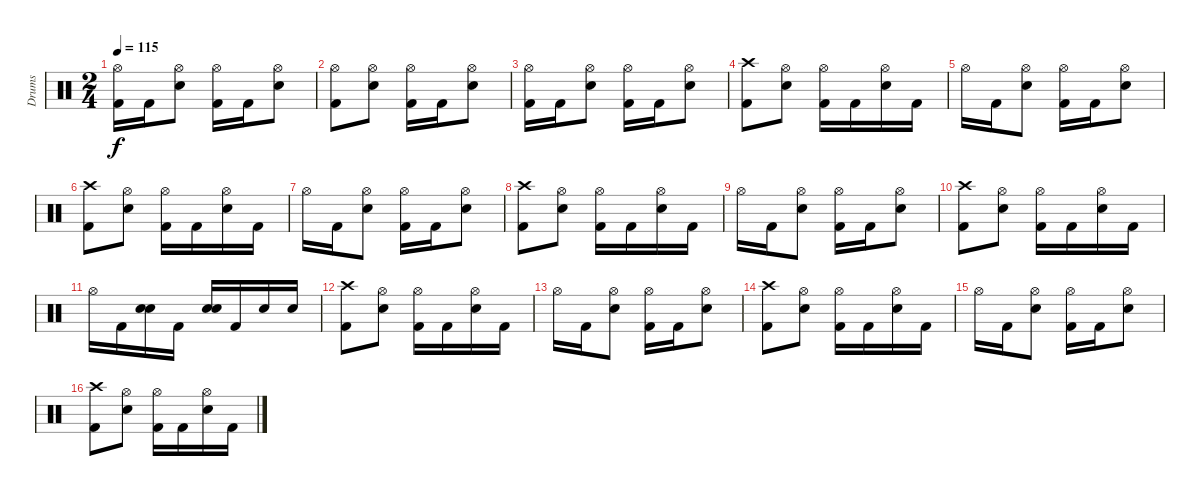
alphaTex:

\track ("Drums" "Drums") {instrument percussion}
\staff {score}
\articulation defaults
\ts (2 4)
\tempo 115
\clef neutral
\ks c
("Hi-Hat (open)" "Kick (hit) 2").16{dy f} "Kick (hit) 2".16 ("Hi-Hat (open)" "Electric Snare (hit)").8 ("Hi-Hat (open)" "Kick (hit) 2").16 "Kick (hit) 2".16 ("Hi-Hat (open)" "Electric Snare (hit)").8 |
("Hi-Hat (open)" "Kick (hit) 2").8 ("Hi-Hat (open)" "Electric Snare (hit)").8 ("Hi-Hat (open)" "Kick (hit) 2").16 "Kick (hit) 2".16 ("Hi-Hat (open)" "Electric Snare (hit)").8 |
("Hi-Hat (open)" "Kick (hit) 2").16 "Kick (hit) 2".16 ("Hi-Hat (open)" "Electric Snare (hit)").8 ("Hi-Hat (open)" "Kick (hit) 2").16 "Kick (hit) 2".16 ("Hi-Hat (open)" "Electric Snare (hit)").8 |
("Crash high (hit)" "Kick (hit) 2").8 ("Hi-Hat (open)" "Electric Snare (hit)").8 ("Hi-Hat (open)" "Kick (hit) 2").16 "Kick (hit) 2".16 ("Hi-Hat (open)" "Electric Snare (hit)").16 "Kick (hit) 2".16 |
"Hi-Hat (open)".16 "Kick (hit) 2".16 ("Hi-Hat (open)" "Electric Snare (hit)").8 ("Hi-Hat (open)" "Kick (hit) 2").16 "Kick (hit) 2".16 ("Hi-Hat (open)" "Electric Snare (hit)").8 |
("Crash high (hit)" "Kick (hit) 2").8 ("Hi-Hat (open)" "Electric Snare (hit)").8 ("Hi-Hat (open)" "Kick (hit) 2").16 "Kick (hit) 2".16 ("Hi-Hat (open)" "Electric Snare (hit)").16 "Kick (hit) 2".16 |
"Hi-Hat (open)".16 "Kick (hit) 2".16 ("Hi-Hat (open)" "Electric Snare (hit)").8 ("Hi-Hat (open)" "Kick (hit) 2").16 "Kick (hit) 2".16 ("Hi-Hat (open)" "Electric Snare (hit)").8 |
("Crash high (hit)" "Kick (hit) 2").8 ("Hi-Hat (open)" "Electric Snare (hit)").8 ("Hi-Hat (open)" "Kick (hit) 2").16 "Kick (hit) 2".16 ("Hi-Hat (open)" "Electric Snare (hit)").16 "Kick (hit) 2".16 |
"Hi-Hat (open)".16 "Kick (hit) 2".16 ("Hi-Hat (open)" "Electric Snare (hit)").8 ("Hi-Hat (open)" "Kick (hit) 2").16 "Kick (hit) 2".16 ("Hi-Hat (open)" "Electric Snare (hit)").8 |
("Crash high (hit)" "Kick (hit) 2").8 ("Hi-Hat (open)" "Electric Snare (hit)").8 ("Hi-Hat (open)" "Kick (hit) 2").16 "Kick (hit) 2".16 ("Hi-Hat (open)" "Electric Snare (hit)").16 "Kick (hit) 2".16 |
"Hi-Hat (open)".16 "Kick (hit) 2".16 ("Electric Snare (hit)" "Electric Snare (hit)").16 "Kick (hit) 2".16 ("Electric Snare (hit)" "Electric Snare (hit)").16 "Kick (hit) 2".16 "Electric Snare (hit)".16 "Electric Snare (hit)".16 |
("Crash high (hit)" "Kick (hit) 2").8 ("Hi-Hat (open)" "Electric Snare (hit)").8 ("Hi-Hat (open)" "Kick (hit) 2").16 "Kick (hit) 2".16 ("Hi-Hat (open)" "Electric Snare (hit)").16 "Kick (hit) 2".16 |
"Hi-Hat (open)".16 "Kick (hit) 2".16 ("Hi-Hat (open)" "Electric Snare (hit)").8 ("Hi-Hat (open)" "Kick (hit) 2").16 "Kick (hit) 2".16 ("Hi-Hat (open)" "Electric Snare (hit)").8 |
("Crash high (hit)" "Kick (hit) 2").8 ("Hi-Hat (open)" "Electric Snare (hit)").8 ("Hi-Hat (open)" "Kick (hit) 2").16 "Kick (hit) 2".16 ("Hi-Hat (open)" "Electric Snare (hit)").16 "Kick (hit) 2".16 |
"Hi-Hat (open)".16 "Kick (hit) 2".16 ("Hi-Hat (open)" "Electric Snare (hit)").8 ("Hi-Hat (open)" "Kick (hit) 2").16 "Kick (hit) 2".16 ("Hi-Hat (open)" "Electric Snare (hit)").8 |
("Crash high (hit)" "Kick (hit) 2").8 ("Hi-Hat (open)" "Electric Snare (hit)").8 ("Hi-Hat (open)" "Kick (hit) 2").16 "Kick (hit) 2".16 ("Hi-Hat (open)" "Electric Snare (hit)").16 "Kick (hit) 2".16
